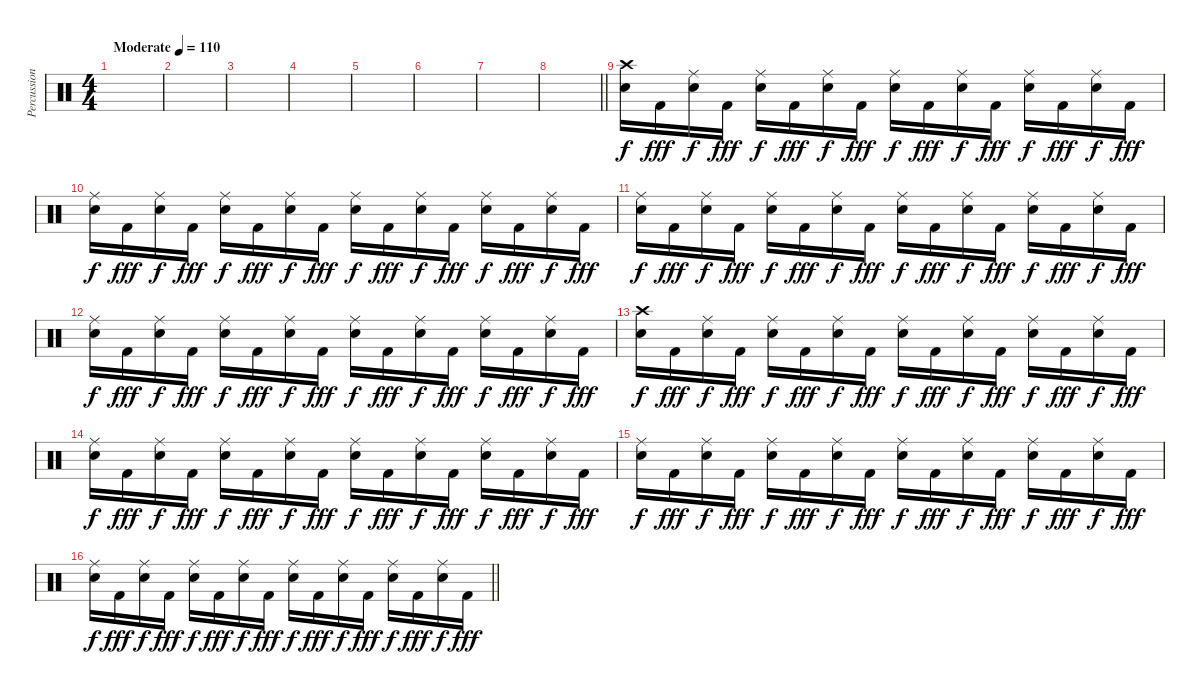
\track ("Percussion" "Percussion") {instrument percussion}
\staff {score}
\articulation defaults
\ts (4 4)
\tempo (110 "Moderate")
\clef neutral
\ks c
|
|
|
|
|
|
|
\barLineRight lightlight
|
\section ("" "")
("Crash high (hit)" "Snare (hit) 2").16 "Kick (hit) 2".16{dy fff} ("Ride (middle)" "Snare (hit) 2").16{dy f} "Kick (hit) 2".16{dy fff} ("Ride (middle)" "Snare (hit) 2").16{dy f} "Kick (hit) 2".16{dy fff} ("Ride (middle)" "Snare (hit) 2").16{dy f} "Kick (hit) 2".16{dy fff} ("Ride (middle)" "Snare (hit) 2").16{dy f} "Kick (hit) 2".16{dy fff} ("Ride (middle)" "Snare (hit) 2").16{dy f} "Kick (hit) 2".16{dy fff} ("Ride (middle)" "Snare (hit) 2").16{dy f} "Kick (hit) 2".16{dy fff} ("Ride (middle)" "Snare (hit) 2").16{dy f} "Kick (hit) 2".16{dy fff} |
("Ride (middle)" "Snare (hit) 2").16{dy f} "Kick (hit) 2".16{dy fff} ("Ride (middle)" "Snare (hit) 2").16{dy f} "Kick (hit) 2".16{dy fff} ("Ride (middle)" "Snare (hit) 2").16{dy f} "Kick (hit) 2".16{dy fff} ("Ride (middle)" "Snare (hit) 2").16{dy f} "Kick (hit) 2".16{dy fff} ("Ride (middle)" "Snare (hit) 2").16{dy f} "Kick (hit) 2".16{dy fff} ("Ride (middle)" "Snare (hit) 2").16{dy f} "Kick (hit) 2".16{dy fff} ("Ride (middle)" "Snare (hit) 2").16{dy f} "Kick (hit) 2".16{dy fff} ("Ride (middle)" "Snare (hit) 2").16{dy f} "Kick (hit) 2".16{dy fff} |
("Ride (middle)" "Snare (hit) 2").16{dy f} "Kick (hit) 2".16{dy fff} ("Ride (middle)" "Snare (hit) 2").16{dy f} "Kick (hit) 2".16{dy fff} ("Ride (middle)" "Snare (hit) 2").16{dy f} "Kick (hit) 2".16{dy fff} ("Ride (middle)" "Snare (hit) 2").16{dy f} "Kick (hit) 2".16{dy fff} ("Ride (middle)" "Snare (hit) 2").16{dy f} "Kick (hit) 2".16{dy fff} ("Ride (middle)" "Snare (hit) 2").16{dy f} "Kick (hit) 2".16{dy fff} ("Ride (middle)" "Snare (hit) 2").16{dy f} "Kick (hit) 2".16{dy fff} ("Ride (middle)" "Snare (hit) 2").16{dy f} "Kick (hit) 2".16{dy fff} |
("Ride (middle)" "Snare (hit) 2").16{dy f} "Kick (hit) 2".16{dy fff} ("Ride (middle)" "Snare (hit) 2").16{dy f} "Kick (hit) 2".16{dy fff} ("Ride (middle)" "Snare (hit) 2").16{dy f} "Kick (hit) 2".16{dy fff} ("Ride (middle)" "Snare (hit) 2").16{dy f} "Kick (hit) 2".16{dy fff} ("Ride (middle)" "Snare (hit) 2").16{dy f} "Kick (hit) 2".16{dy fff} ("Ride (middle)" "Snare (hit) 2").16{dy f} "Kick (hit) 2".16{dy fff} ("Ride (middle)" "Snare (hit) 2").16{dy f} "Kick (hit) 2".16{dy fff} ("Ride (middle)" "Snare (hit) 2").16{dy f} "Kick (hit) 2".16{dy fff} |
("Crash high (hit)" "Snare (hit) 2").16{dy f} "Kick (hit) 2".16{dy fff} ("Ride (middle)" "Snare (hit) 2").16{dy f} "Kick (hit) 2".16{dy fff} ("Ride (middle)" "Snare (hit) 2").16{dy f} "Kick (hit) 2".16{dy fff} ("Ride (middle)" "Snare (hit) 2").16{dy f} "Kick (hit) 2".16{dy fff} ("Ride (middle)" "Snare (hit) 2").16{dy f} "Kick (hit) 2".16{dy fff} ("Ride (middle)" "Snare (hit) 2").16{dy f} "Kick (hit) 2".16{dy fff} ("Ride (middle)" "Snare (hit) 2").16{dy f} "Kick (hit) 2".16{dy fff} ("Ride (middle)" "Snare (hit) 2").16{dy f} "Kick (hit) 2".16{dy fff} |
("Ride (middle)" "Snare (hit) 2").16{dy f} "Kick (hit) 2".16{dy fff} ("Ride (middle)" "Snare (hit) 2").16{dy f} "Kick (hit) 2".16{dy fff} ("Ride (middle)" "Snare (hit) 2").16{dy f} "Kick (hit) 2".16{dy fff} ("Ride (middle)" "Snare (hit) 2").16{dy f} "Kick (hit) 2".16{dy fff} ("Ride (middle)" "Snare (hit) 2").16{dy f} "Kick (hit) 2".16{dy fff} ("Ride (middle)" "Snare (hit) 2").16{dy f} "Kick (hit) 2".16{dy fff} ("Ride (middle)" "Snare (hit) 2").16{dy f} "Kick (hit) 2".16{dy fff} ("Ride (middle)" "Snare (hit) 2").16{dy f} "Kick (hit) 2".16{dy fff} |
("Ride (middle)" "Snare (hit) 2").16{dy f} "Kick (hit) 2".16{dy fff} ("Ride (middle)" "Snare (hit) 2").16{dy f} "Kick (hit) 2".16{dy fff} ("Ride (middle)" "Snare (hit) 2").16{dy f} "Kick (hit) 2".16{dy fff} ("Ride (middle)" "Snare (hit) 2").16{dy f} "Kick (hit) 2".16{dy fff} ("Ride (middle)" "Snare (hit) 2").16{dy f} "Kick (hit) 2".16{dy fff} ("Ride (middle)" "Snare (hit) 2").16{dy f} "Kick (hit) 2".16{dy fff} ("Ride (middle)" "Snare (hit) 2").16{dy f} "Kick (hit) 2".16{dy fff} ("Ride (middle)" "Snare (hit) 2").16{dy f} "Kick (hit) 2".16{dy fff} |
\barLineRight lightlight
("Ride (middle)" "Snare (hit) 2").16{dy f} "Kick (hit) 2".16{dy fff} ("Ride (middle)" "Snare (hit) 2").16{dy f} "Kick (hit) 2".16{dy fff} ("Ride (middle)" "Snare (hit) 2").16{dy f} "Kick (hit) 2".16{dy fff} ("Ride (middle)" "Snare (hit) 2").16{dy f} "Kick (hit) 2".16{dy fff} ("Ride (middle)" "Snare (hit) 2").16{dy f} "Kick (hit) 2".16{dy fff} ("Ride (middle)" "Snare (hit) 2").16{dy f} "Kick (hit) 2".16{dy fff} ("Ride (middle)" "Snare (hit) 2").16{dy f} "Kick (hit) 2".16{dy fff} ("Ride (middle)" "Snare (hit) 2").16{dy f} "Kick (hit) 2".16{dy fff}
